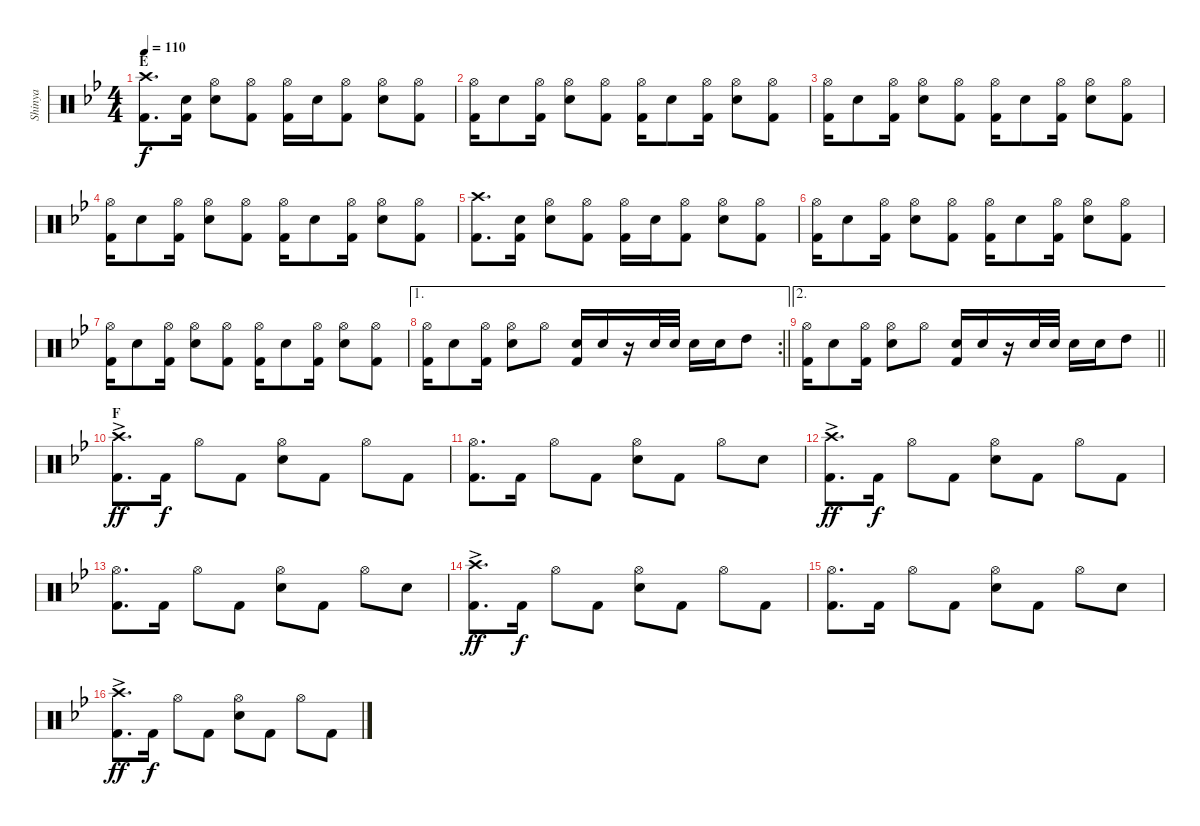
\track ("Shinya" "Shinya") {instrument percussion}
\staff {score}
\articulation defaults
\ts (4 4)
\section ("" "E")
\tempo 110
\clef neutral
\ks bb
("Crash high (hit)" "Kick (hit) 2").8{d dy f} ("Snare (hit) 2" "Kick (hit) 2").16 ("Hi-Hat (open)" "Snare (hit) 2").8 ("Hi-Hat (open)" "Kick (hit) 2").8 ("Hi-Hat (open)" "Kick (hit) 2").16 "Snare (hit) 2".16 ("Hi-Hat (open)" "Kick (hit) 2").8 ("Hi-Hat (open)" "Snare (hit) 2").8 ("Hi-Hat (open)" "Kick (hit) 2").8 |
("Hi-Hat (open)" "Kick (hit) 2").16 "Snare (hit) 2".8 ("Hi-Hat (open)" "Kick (hit) 2").16 ("Hi-Hat (open)" "Snare (hit) 2").8 ("Hi-Hat (open)" "Kick (hit) 2").8 ("Hi-Hat (open)" "Kick (hit) 2").16 "Snare (hit) 2".8 ("Hi-Hat (open)" "Kick (hit) 2").16 ("Hi-Hat (open)" "Snare (hit) 2").8 ("Hi-Hat (open)" "Kick (hit) 2").8 |
("Hi-Hat (open)" "Kick (hit) 2").16 "Snare (hit) 2".8 ("Hi-Hat (open)" "Kick (hit) 2").16 ("Hi-Hat (open)" "Snare (hit) 2").8 ("Hi-Hat (open)" "Kick (hit) 2").8 ("Hi-Hat (open)" "Kick (hit) 2").16 "Snare (hit) 2".8 ("Hi-Hat (open)" "Kick (hit) 2").16 ("Hi-Hat (open)" "Snare (hit) 2").8 ("Hi-Hat (open)" "Kick (hit) 2").8 |
("Hi-Hat (open)" "Kick (hit) 2").16 "Snare (hit) 2".8 ("Hi-Hat (open)" "Kick (hit) 2").16 ("Hi-Hat (open)" "Snare (hit) 2").8 ("Hi-Hat (open)" "Kick (hit) 2").8 ("Hi-Hat (open)" "Kick (hit) 2").16 "Snare (hit) 2".8 ("Hi-Hat (open)" "Kick (hit) 2").16 ("Hi-Hat (open)" "Snare (hit) 2").8 ("Hi-Hat (open)" "Kick (hit) 2").8 |
("Crash high (hit)" "Kick (hit) 2").8{d} ("Snare (hit) 2" "Kick (hit) 2").16 ("Hi-Hat (open)" "Snare (hit) 2").8 ("Hi-Hat (open)" "Kick (hit) 2").8 ("Hi-Hat (open)" "Kick (hit) 2").16 "Snare (hit) 2".16 ("Hi-Hat (open)" "Kick (hit) 2").8 ("Hi-Hat (open)" "Snare (hit) 2").8 ("Hi-Hat (open)" "Kick (hit) 2").8 |
("Hi-Hat (open)" "Kick (hit) 2").16 "Snare (hit) 2".8 ("Hi-Hat (open)" "Kick (hit) 2").16 ("Hi-Hat (open)" "Snare (hit) 2").8 ("Hi-Hat (open)" "Kick (hit) 2").8 ("Hi-Hat (open)" "Kick (hit) 2").16 "Snare (hit) 2".8 ("Hi-Hat (open)" "Kick (hit) 2").16 ("Hi-Hat (open)" "Snare (hit) 2").8 ("Hi-Hat (open)" "Kick (hit) 2").8 |
("Hi-Hat (open)" "Kick (hit) 2").16 "Snare (hit) 2".8 ("Hi-Hat (open)" "Kick (hit) 2").16 ("Hi-Hat (open)" "Snare (hit) 2").8 ("Hi-Hat (open)" "Kick (hit) 2").8 ("Hi-Hat (open)" "Kick (hit) 2").16 "Snare (hit) 2".8 ("Hi-Hat (open)" "Kick (hit) 2").16 ("Hi-Hat (open)" "Snare (hit) 2").8 ("Hi-Hat (open)" "Kick (hit) 2").8 |
\ae 1
\rc 2
\barLineRight lightlight
("Hi-Hat (open)" "Kick (hit) 2").16 "Snare (hit) 2".8 ("Hi-Hat (open)" "Kick (hit) 2").16 ("Hi-Hat (open)" "Snare (hit) 2").8 "Hi-Hat (open)".8 ("Snare (hit) 2" "Kick (hit) 2").16 "Snare (hit) 2".16 r.16 "Snare (hit) 2".32 "Snare (hit) 2".32 "Snare (hit) 2".16 "Snare (hit) 2".16 "High Tom (hit)".8 |
\ae 2
\barLineRight lightlight
("Hi-Hat (open)" "Kick (hit) 2").16 "Snare (hit) 2".8 ("Hi-Hat (open)" "Kick (hit) 2").16 ("Hi-Hat (open)" "Snare (hit) 2").8 "Hi-Hat (open)".8 ("Snare (hit) 2" "Kick (hit) 2").16 "Snare (hit) 2".16 r.16 "Snare (hit) 2".32 "Snare (hit) 2".32 "Snare (hit) 2".16 "Snare (hit) 2".16 "High Tom (hit)".8 |
\section ("" "F")
("Crash high (hit)"{ac} "Kick (hit) 2").8{d dy ff} "Kick (hit) 2".16{dy f} "Hi-Hat (open)".8 "Kick (hit) 2".8 ("Hi-Hat (open)" "Snare (hit) 2").8 "Kick (hit) 2".8 "Hi-Hat (open)".8 "Kick (hit) 2".8 |
("Hi-Hat (open)" "Kick (hit) 2").8{d} "Kick (hit) 2".16 "Hi-Hat (open)".8 "Kick (hit) 2".8 ("Hi-Hat (open)" "Snare (hit) 2").8 "Kick (hit) 2".8 "Hi-Hat (open)".8 "Snare (hit) 2".8 |
("Crash high (hit)"{ac} "Kick (hit) 2").8{d dy ff} "Kick (hit) 2".16{dy f} "Hi-Hat (open)".8 "Kick (hit) 2".8 ("Hi-Hat (open)" "Snare (hit) 2").8 "Kick (hit) 2".8 "Hi-Hat (open)".8 "Kick (hit) 2".8 |
("Hi-Hat (open)" "Kick (hit) 2").8{d} "Kick (hit) 2".16 "Hi-Hat (open)".8 "Kick (hit) 2".8 ("Hi-Hat (open)" "Snare (hit) 2").8 "Kick (hit) 2".8 "Hi-Hat (open)".8 "Snare (hit) 2".8 |
("Crash high (hit)"{ac} "Kick (hit) 2").8{d dy ff} "Kick (hit) 2".16{dy f} "Hi-Hat (open)".8 "Kick (hit) 2".8 ("Hi-Hat (open)" "Snare (hit) 2").8 "Kick (hit) 2".8 "Hi-Hat (open)".8 "Kick (hit) 2".8 |
("Hi-Hat (open)" "Kick (hit) 2").8{d} "Kick (hit) 2".16 "Hi-Hat (open)".8 "Kick (hit) 2".8 ("Hi-Hat (open)" "Snare (hit) 2").8 "Kick (hit) 2".8 "Hi-Hat (open)".8 "Snare (hit) 2".8 |
("Crash high (hit)"{ac} "Kick (hit) 2").8{d dy ff} "Kick (hit) 2".16{dy f} "Hi-Hat (open)".8 "Kick (hit) 2".8 ("Hi-Hat (open)" "Snare (hit) 2").8 "Kick (hit) 2".8 "Hi-Hat (open)".8 "Kick (hit) 2".8
